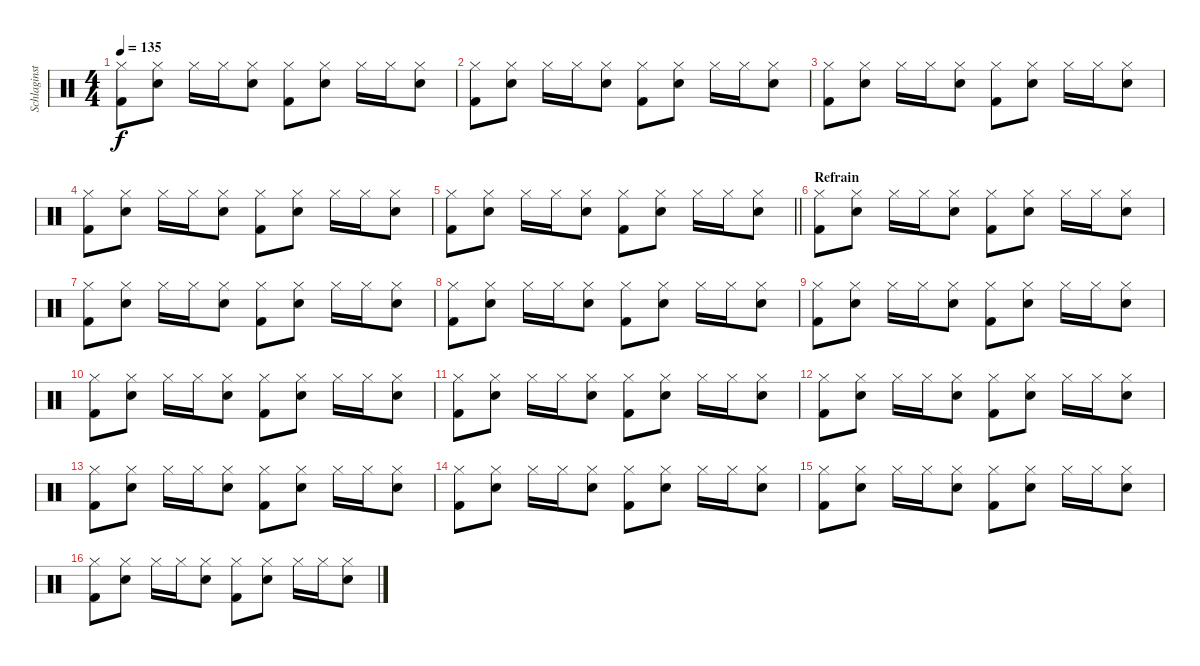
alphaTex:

\track ("Schlaginstrumente - Auswahl" "Schlaginst") {instrument percussion}
\staff {score}
\articulation defaults
\ts (4 4)
\tempo 135
\clef neutral
\ks c
("Hi-Hat (closed)" "Kick (hit) 2").8{dy f} ("Hi-Hat (closed)" "Snare (hit) 2").8 "Hi-Hat (closed)".16 "Hi-Hat (closed)".16 ("Hi-Hat (closed)" "Snare (hit) 2").8 ("Hi-Hat (closed)" "Kick (hit) 2").8 ("Hi-Hat (closed)" "Snare (hit) 2").8 "Hi-Hat (closed)".16 "Hi-Hat (closed)".16 ("Hi-Hat (closed)" "Snare (hit) 2").8 |
("Hi-Hat (closed)" "Kick (hit) 2").8 ("Hi-Hat (closed)" "Snare (hit) 2").8 "Hi-Hat (closed)".16 "Hi-Hat (closed)".16 ("Hi-Hat (closed)" "Snare (hit) 2").8 ("Hi-Hat (closed)" "Kick (hit) 2").8 ("Hi-Hat (closed)" "Snare (hit) 2").8 "Hi-Hat (closed)".16 "Hi-Hat (closed)".16 ("Hi-Hat (closed)" "Snare (hit) 2").8 |
("Hi-Hat (closed)" "Kick (hit) 2").8 ("Hi-Hat (closed)" "Snare (hit) 2").8 "Hi-Hat (closed)".16 "Hi-Hat (closed)".16 ("Hi-Hat (closed)" "Snare (hit) 2").8 ("Hi-Hat (closed)" "Kick (hit) 2").8 ("Hi-Hat (closed)" "Snare (hit) 2").8 "Hi-Hat (closed)".16 "Hi-Hat (closed)".16 ("Hi-Hat (closed)" "Snare (hit) 2").8 |
("Hi-Hat (closed)" "Kick (hit) 2").8 ("Hi-Hat (closed)" "Snare (hit) 2").8 "Hi-Hat (closed)".16 "Hi-Hat (closed)".16 ("Hi-Hat (closed)" "Snare (hit) 2").8 ("Hi-Hat (closed)" "Kick (hit) 2").8 ("Hi-Hat (closed)" "Snare (hit) 2").8 "Hi-Hat (closed)".16 "Hi-Hat (closed)".16 ("Hi-Hat (closed)" "Snare (hit) 2").8 |
\barLineRight lightlight
("Hi-Hat (closed)" "Kick (hit) 2").8 ("Hi-Hat (closed)" "Snare (hit) 2").8 "Hi-Hat (closed)".16 "Hi-Hat (closed)".16 ("Hi-Hat (closed)" "Snare (hit) 2").8 ("Hi-Hat (closed)" "Kick (hit) 2").8 ("Hi-Hat (closed)" "Snare (hit) 2").8 "Hi-Hat (closed)".16 "Hi-Hat (closed)".16 ("Hi-Hat (closed)" "Snare (hit) 2").8 |
\section ("" "Refrain")
("Hi-Hat (closed)" "Kick (hit) 2").8 ("Hi-Hat (closed)" "Snare (hit) 2").8 "Hi-Hat (closed)".16 "Hi-Hat (closed)".16 ("Hi-Hat (closed)" "Snare (hit) 2").8 ("Hi-Hat (closed)" "Kick (hit) 2").8 ("Hi-Hat (closed)" "Snare (hit) 2").8 "Hi-Hat (closed)".16 "Hi-Hat (closed)".16 ("Hi-Hat (closed)" "Snare (hit) 2").8 |
("Hi-Hat (closed)" "Kick (hit) 2").8 ("Hi-Hat (closed)" "Snare (hit) 2").8 "Hi-Hat (closed)".16 "Hi-Hat (closed)".16 ("Hi-Hat (closed)" "Snare (hit) 2").8 ("Hi-Hat (closed)" "Kick (hit) 2").8 ("Hi-Hat (closed)" "Snare (hit) 2").8 "Hi-Hat (closed)".16 "Hi-Hat (closed)".16 ("Hi-Hat (closed)" "Snare (hit) 2").8 |
("Hi-Hat (closed)" "Kick (hit) 2").8 ("Hi-Hat (closed)" "Snare (hit) 2").8 "Hi-Hat (closed)".16 "Hi-Hat (closed)".16 ("Hi-Hat (closed)" "Snare (hit) 2").8 ("Hi-Hat (closed)" "Kick (hit) 2").8 ("Hi-Hat (closed)" "Snare (hit) 2").8 "Hi-Hat (closed)".16 "Hi-Hat (closed)".16 ("Hi-Hat (closed)" "Snare (hit) 2").8 |
("Hi-Hat (closed)" "Kick (hit) 2").8 ("Hi-Hat (closed)" "Snare (hit) 2").8 "Hi-Hat (closed)".16 "Hi-Hat (closed)".16 ("Hi-Hat (closed)" "Snare (hit) 2").8 ("Hi-Hat (closed)" "Kick (hit) 2").8 ("Hi-Hat (closed)" "Snare (hit) 2").8 "Hi-Hat (closed)".16 "Hi-Hat (closed)".16 ("Hi-Hat (closed)" "Snare (hit) 2").8 |
("Hi-Hat (closed)" "Kick (hit) 2").8 ("Hi-Hat (closed)" "Snare (hit) 2").8 "Hi-Hat (closed)".16 "Hi-Hat (closed)".16 ("Hi-Hat (closed)" "Snare (hit) 2").8 ("Hi-Hat (closed)" "Kick (hit) 2").8 ("Hi-Hat (closed)" "Snare (hit) 2").8 "Hi-Hat (closed)".16 "Hi-Hat (closed)".16 ("Hi-Hat (closed)" "Snare (hit) 2").8 |
("Hi-Hat (closed)" "Kick (hit) 2").8 ("Hi-Hat (closed)" "Snare (hit) 2").8 "Hi-Hat (closed)".16 "Hi-Hat (closed)".16 ("Hi-Hat (closed)" "Snare (hit) 2").8 ("Hi-Hat (closed)" "Kick (hit) 2").8 ("Hi-Hat (closed)" "Snare (hit) 2").8 "Hi-Hat (closed)".16 "Hi-Hat (closed)".16 ("Hi-Hat (closed)" "Snare (hit) 2").8 |
("Hi-Hat (closed)" "Kick (hit) 2").8 ("Hi-Hat (closed)" "Snare (hit) 2").8 "Hi-Hat (closed)".16 "Hi-Hat (closed)".16 ("Hi-Hat (closed)" "Snare (hit) 2").8 ("Hi-Hat (closed)" "Kick (hit) 2").8 ("Hi-Hat (closed)" "Snare (hit) 2").8 "Hi-Hat (closed)".16 "Hi-Hat (closed)".16 ("Hi-Hat (closed)" "Snare (hit) 2").8 |
("Hi-Hat (closed)" "Kick (hit) 2").8 ("Hi-Hat (closed)" "Snare (hit) 2").8 "Hi-Hat (closed)".16 "Hi-Hat (closed)".16 ("Hi-Hat (closed)" "Snare (hit) 2").8 ("Hi-Hat (closed)" "Kick (hit) 2").8 ("Hi-Hat (closed)" "Snare (hit) 2").8 "Hi-Hat (closed)".16 "Hi-Hat (closed)".16 ("Hi-Hat (closed)" "Snare (hit) 2").8 |
("Hi-Hat (closed)" "Kick (hit) 2").8 ("Hi-Hat (closed)" "Snare (hit) 2").8 "Hi-Hat (closed)".16 "Hi-Hat (closed)".16 ("Hi-Hat (closed)" "Snare (hit) 2").8 ("Hi-Hat (closed)" "Kick (hit) 2").8 ("Hi-Hat (closed)" "Snare (hit) 2").8 "Hi-Hat (closed)".16 "Hi-Hat (closed)".16 ("Hi-Hat (closed)" "Snare (hit) 2").8 |
("Hi-Hat (closed)" "Kick (hit) 2").8 ("Hi-Hat (closed)" "Snare (hit) 2").8 "Hi-Hat (closed)".16 "Hi-Hat (closed)".16 ("Hi-Hat (closed)" "Snare (hit) 2").8 ("Hi-Hat (closed)" "Kick (hit) 2").8 ("Hi-Hat (closed)" "Snare (hit) 2").8 "Hi-Hat (closed)".16 "Hi-Hat (closed)".16 ("Hi-Hat (closed)" "Snare (hit) 2").8 |
("Hi-Hat (closed)" "Kick (hit) 2").8 ("Hi-Hat (closed)" "Snare (hit) 2").8 "Hi-Hat (closed)".16 "Hi-Hat (closed)".16 ("Hi-Hat (closed)" "Snare (hit) 2").8 ("Hi-Hat (closed)" "Kick (hit) 2").8 ("Hi-Hat (closed)" "Snare (hit) 2").8 "Hi-Hat (closed)".16 "Hi-Hat (closed)".16 ("Hi-Hat (closed)" "Snare (hit) 2").8
